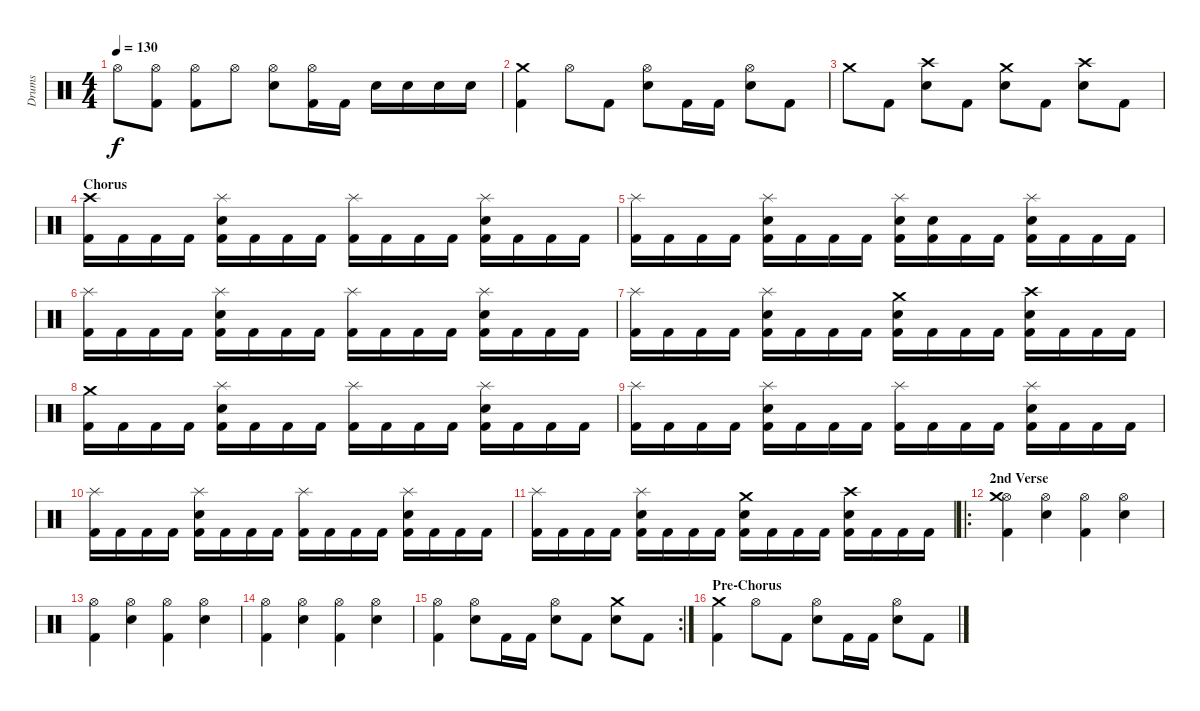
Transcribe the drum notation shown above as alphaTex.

\track ("Drums" "Drums") {instrument percussion}
\staff {score}
\articulation defaults
\ts (4 4)
\tempo 130
\clef neutral
\ks c "Hi-Hat (open)".8{dy f}
("Kick (hit) 2" "Hi-Hat (open)").8 ("Kick (hit) 2" "Hi-Hat (open)").8 "Hi-Hat (open)".8 ("Electric Snare (hit)" "Hi-Hat (open)").8 ("Kick (hit) 2" "Hi-Hat (open)").16 "Kick (hit) 2".16 "Electric Snare (hit)".16 "Electric Snare (hit)".16 "Electric Snare (hit)".16 "Electric Snare (hit)".16 |
("Kick (hit) 2" "Crash medium (hit)").4 "Hi-Hat (open)".8 "Kick (hit) 2".8 ("Electric Snare (hit)" "Hi-Hat (open)").8 "Kick (hit) 2".16 "Kick (hit) 2".16 ("Electric Snare (hit)" "Hi-Hat (open)").8 "Kick (hit) 2".8 |
"Crash medium (hit)".8 "Kick (hit) 2".8 ("Electric Snare (hit)" "Crash high (hit)").8 "Kick (hit) 2".8 ("Electric Snare (hit)" "Crash medium (hit)").8 "Kick (hit) 2".8 ("Electric Snare (hit)" "Crash high (hit)").8 "Kick (hit) 2".8 |
\section ("" "Chorus")
("Kick (hit) 2" "Crash high (hit)").16 "Kick (hit) 2".16 "Kick (hit) 2".16 "Kick (hit) 2".16 ("Kick (hit) 2" "Electric Snare (hit)" "Splash (hit)").16 "Kick (hit) 2".16 "Kick (hit) 2".16 "Kick (hit) 2".16 ("Kick (hit) 2" "Splash (hit)").16 "Kick (hit) 2".16 "Kick (hit) 2".16 "Kick (hit) 2".16 ("Kick (hit) 2" "Electric Snare (hit)" "Splash (hit)").16 "Kick (hit) 2".16 "Kick (hit) 2".16 "Kick (hit) 2".16 |
("Kick (hit) 2" "Splash (hit)").16 "Kick (hit) 2".16 "Kick (hit) 2".16 "Kick (hit) 2".16 ("Kick (hit) 2" "Electric Snare (hit)" "Splash (hit)").16 "Kick (hit) 2".16 "Kick (hit) 2".16 "Kick (hit) 2".16 ("Kick (hit) 2" "Electric Snare (hit)" "Splash (hit)").16 ("Kick (hit) 2" "Electric Snare (hit)").16 "Kick (hit) 2".16 "Kick (hit) 2".16 ("Kick (hit) 2" "Electric Snare (hit)" "Splash (hit)").16 "Kick (hit) 2".16 "Kick (hit) 2".16 "Kick (hit) 2".16 |
("Kick (hit) 2" "Splash (hit)").16 "Kick (hit) 2".16 "Kick (hit) 2".16 "Kick (hit) 2".16 ("Kick (hit) 2" "Electric Snare (hit)" "Splash (hit)").16 "Kick (hit) 2".16 "Kick (hit) 2".16 "Kick (hit) 2".16 ("Kick (hit) 2" "Splash (hit)").16 "Kick (hit) 2".16 "Kick (hit) 2".16 "Kick (hit) 2".16 ("Kick (hit) 2" "Electric Snare (hit)" "Splash (hit)").16 "Kick (hit) 2".16 "Kick (hit) 2".16 "Kick (hit) 2".16 |
("Kick (hit) 2" "Splash (hit)").16 "Kick (hit) 2".16 "Kick (hit) 2".16 "Kick (hit) 2".16 ("Kick (hit) 2" "Electric Snare (hit)" "Splash (hit)").16 "Kick (hit) 2".16 "Kick (hit) 2".16 "Kick (hit) 2".16 ("Kick (hit) 2" "Electric Snare (hit)" "Crash medium (hit)").16 "Kick (hit) 2".16 "Kick (hit) 2".16 "Kick (hit) 2".16 ("Kick (hit) 2" "Electric Snare (hit)" "Crash high (hit)").16 "Kick (hit) 2".16 "Kick (hit) 2".16 "Kick (hit) 2".16 |
("Kick (hit) 2" "Crash medium (hit)").16 "Kick (hit) 2".16 "Kick (hit) 2".16 "Kick (hit) 2".16 ("Kick (hit) 2" "Electric Snare (hit)" "Splash (hit)").16 "Kick (hit) 2".16 "Kick (hit) 2".16 "Kick (hit) 2".16 ("Kick (hit) 2" "Splash (hit)").16 "Kick (hit) 2".16 "Kick (hit) 2".16 "Kick (hit) 2".16 ("Kick (hit) 2" "Electric Snare (hit)" "Splash (hit)").16 "Kick (hit) 2".16 "Kick (hit) 2".16 "Kick (hit) 2".16 |
("Kick (hit) 2" "Splash (hit)").16 "Kick (hit) 2".16 "Kick (hit) 2".16 "Kick (hit) 2".16 ("Kick (hit) 2" "Electric Snare (hit)" "Splash (hit)").16 "Kick (hit) 2".16 "Kick (hit) 2".16 "Kick (hit) 2".16 ("Kick (hit) 2" "Splash (hit)").16 "Kick (hit) 2".16 "Kick (hit) 2".16 "Kick (hit) 2".16 ("Kick (hit) 2" "Electric Snare (hit)" "Splash (hit)").16 "Kick (hit) 2".16 "Kick (hit) 2".16 "Kick (hit) 2".16 |
("Kick (hit) 2" "Splash (hit)").16 "Kick (hit) 2".16 "Kick (hit) 2".16 "Kick (hit) 2".16 ("Kick (hit) 2" "Electric Snare (hit)" "Splash (hit)").16 "Kick (hit) 2".16 "Kick (hit) 2".16 "Kick (hit) 2".16 ("Kick (hit) 2" "Splash (hit)").16 "Kick (hit) 2".16 "Kick (hit) 2".16 "Kick (hit) 2".16 ("Kick (hit) 2" "Electric Snare (hit)" "Splash (hit)").16 "Kick (hit) 2".16 "Kick (hit) 2".16 "Kick (hit) 2".16 |
("Kick (hit) 2" "Splash (hit)").16 "Kick (hit) 2".16 "Kick (hit) 2".16 "Kick (hit) 2".16 ("Kick (hit) 2" "Electric Snare (hit)" "Splash (hit)").16 "Kick (hit) 2".16 "Kick (hit) 2".16 "Kick (hit) 2".16 ("Kick (hit) 2" "Electric Snare (hit)" "Crash medium (hit)").16 "Kick (hit) 2".16 "Kick (hit) 2".16 "Kick (hit) 2".16 ("Kick (hit) 2" "Electric Snare (hit)" "Crash high (hit)").16 "Kick (hit) 2".16 "Kick (hit) 2".16 "Kick (hit) 2".16 |
\ro
\section ("" "2nd Verse")
("Kick (hit) 2" "Hi-Hat (open)" "Crash medium (hit)").4 ("Electric Snare (hit)" "Hi-Hat (open)").4 ("Kick (hit) 2" "Hi-Hat (open)").4 ("Electric Snare (hit)" "Hi-Hat (open)").4 |
("Kick (hit) 2" "Hi-Hat (open)").4 ("Electric Snare (hit)" "Hi-Hat (open)").4 ("Kick (hit) 2" "Hi-Hat (open)").4 ("Electric Snare (hit)" "Hi-Hat (open)").4 |
("Kick (hit) 2" "Hi-Hat (open)").4 ("Electric Snare (hit)" "Hi-Hat (open)").4 ("Kick (hit) 2" "Hi-Hat (open)").4 ("Electric Snare (hit)" "Hi-Hat (open)").4 |
\rc 2
("Kick (hit) 2" "Hi-Hat (open)").4 ("Electric Snare (hit)" "Hi-Hat (open)").8 "Kick (hit) 2".16 "Kick (hit) 2".16 ("Electric Snare (hit)" "Hi-Hat (open)").8 "Kick (hit) 2".8 ("Electric Snare (hit)" "Crash medium (hit)").8 "Kick (hit) 2".8 |
\section ("" "Pre-Chorus")
("Kick (hit) 2" "Crash medium (hit)").4 "Hi-Hat (open)".8 "Kick (hit) 2".8 ("Electric Snare (hit)" "Hi-Hat (open)").8 "Kick (hit) 2".16 "Kick (hit) 2".16 ("Electric Snare (hit)" "Hi-Hat (open)").8 "Kick (hit) 2".8
